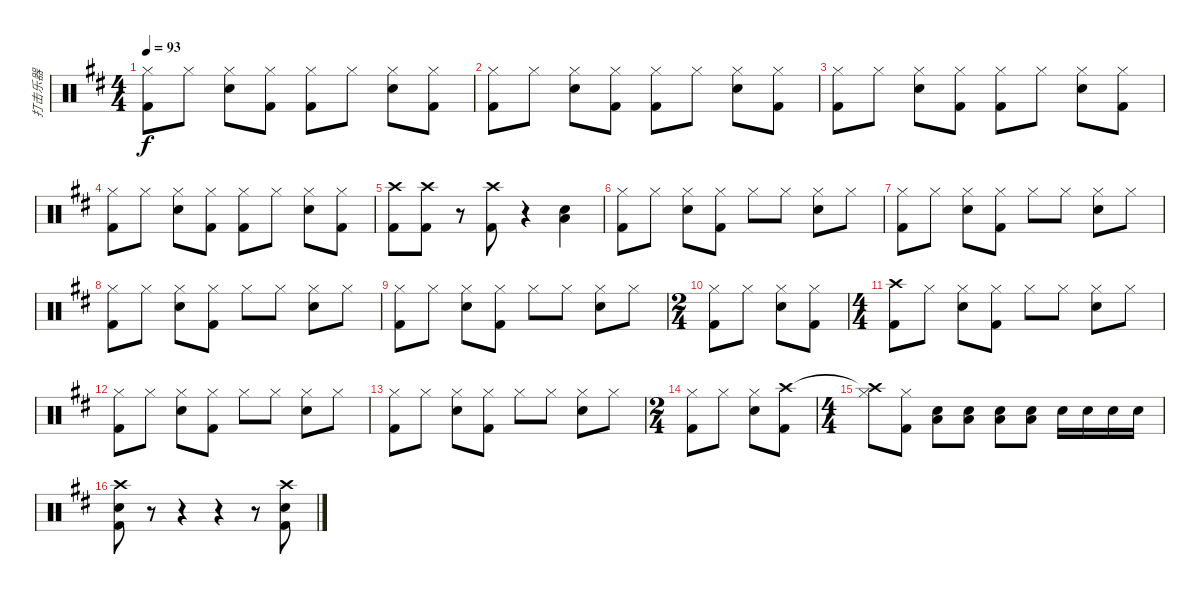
\track ("打击乐器" "打击乐器") {instrument percussion}
\staff {score}
\articulation defaults
\ts (4 4)
\tempo 93
\clef neutral
\ks d
("Hi-Hat (closed)" "Kick (hit) 2").8{dy f} "Hi-Hat (closed)".8 ("Hi-Hat (closed)" "Snare (hit) 2").8 ("Hi-Hat (closed)" "Kick (hit) 2").8 ("Hi-Hat (closed)" "Kick (hit) 2").8 "Hi-Hat (closed)".8 ("Hi-Hat (closed)" "Snare (hit) 2").8 ("Hi-Hat (closed)" "Kick (hit) 2").8 |
("Hi-Hat (closed)" "Kick (hit) 2").8 "Hi-Hat (closed)".8 ("Hi-Hat (closed)" "Snare (hit) 2").8 ("Hi-Hat (closed)" "Kick (hit) 2").8 ("Hi-Hat (closed)" "Kick (hit) 2").8 "Hi-Hat (closed)".8 ("Hi-Hat (closed)" "Snare (hit) 2").8 ("Hi-Hat (closed)" "Kick (hit) 2").8 |
("Hi-Hat (closed)" "Kick (hit) 2").8 "Hi-Hat (closed)".8 ("Hi-Hat (closed)" "Snare (hit) 2").8 ("Hi-Hat (closed)" "Kick (hit) 2").8 ("Hi-Hat (closed)" "Kick (hit) 2").8 "Hi-Hat (closed)".8 ("Hi-Hat (closed)" "Snare (hit) 2").8 ("Hi-Hat (closed)" "Kick (hit) 2").8 |
("Hi-Hat (closed)" "Kick (hit) 2").8 "Hi-Hat (closed)".8 ("Hi-Hat (closed)" "Snare (hit) 2").8 ("Hi-Hat (closed)" "Kick (hit) 2").8 ("Hi-Hat (closed)" "Kick (hit) 2").8 "Hi-Hat (closed)".8 ("Hi-Hat (closed)" "Snare (hit) 2").8 ("Hi-Hat (closed)" "Kick (hit) 2").8 |
("Crash high (hit)" "Kick (hit) 2").8 ("Crash high (hit)" "Kick (hit) 2").8 r.8 ("Crash high (hit)" "Kick (hit) 2").8 r.4 ("Low Tom (hit)" "Snare (hit) 2").4 |
("Hi-Hat (closed)" "Kick (hit) 2").8 "Hi-Hat (closed)".8 ("Hi-Hat (closed)" "Snare (hit) 2").8 ("Hi-Hat (closed)" "Kick (hit) 2").8 "Hi-Hat (closed)".8 "Hi-Hat (closed)".8 ("Hi-Hat (closed)" "Snare (hit) 2").8 "Hi-Hat (closed)".8 |
("Hi-Hat (closed)" "Kick (hit) 2").8 "Hi-Hat (closed)".8 ("Hi-Hat (closed)" "Snare (hit) 2").8 ("Hi-Hat (closed)" "Kick (hit) 2").8 "Hi-Hat (closed)".8 "Hi-Hat (closed)".8 ("Hi-Hat (closed)" "Snare (hit) 2").8 "Hi-Hat (closed)".8 |
("Hi-Hat (closed)" "Kick (hit) 2").8 "Hi-Hat (closed)".8 ("Hi-Hat (closed)" "Snare (hit) 2").8 ("Hi-Hat (closed)" "Kick (hit) 2").8 "Hi-Hat (closed)".8 "Hi-Hat (closed)".8 ("Hi-Hat (closed)" "Snare (hit) 2").8 "Hi-Hat (closed)".8 |
("Hi-Hat (closed)" "Kick (hit) 2").8 "Hi-Hat (closed)".8 ("Hi-Hat (closed)" "Snare (hit) 2").8 ("Hi-Hat (closed)" "Kick (hit) 2").8 "Hi-Hat (closed)".8 "Hi-Hat (closed)".8 ("Hi-Hat (closed)" "Snare (hit) 2").8 "Hi-Hat (closed)".8 |
\ts (2 4)
("Hi-Hat (closed)" "Kick (hit) 2").8 "Hi-Hat (closed)".8 ("Hi-Hat (closed)" "Snare (hit) 2").8 ("Hi-Hat (closed)" "Kick (hit) 2").8 |
\ts (4 4)
("Crash high (hit)" "Kick (hit) 2").8 "Hi-Hat (closed)".8 ("Hi-Hat (closed)" "Snare (hit) 2").8 ("Hi-Hat (closed)" "Kick (hit) 2").8 "Hi-Hat (closed)".8 "Hi-Hat (closed)".8 ("Hi-Hat (closed)" "Snare (hit) 2").8 "Hi-Hat (closed)".8 |
("Hi-Hat (closed)" "Kick (hit) 2").8 "Hi-Hat (closed)".8 ("Hi-Hat (closed)" "Snare (hit) 2").8 ("Hi-Hat (closed)" "Kick (hit) 2").8 "Hi-Hat (closed)".8 "Hi-Hat (closed)".8 ("Hi-Hat (closed)" "Snare (hit) 2").8 "Hi-Hat (closed)".8 |
("Hi-Hat (closed)" "Kick (hit) 2").8 "Hi-Hat (closed)".8 ("Hi-Hat (closed)" "Snare (hit) 2").8 ("Hi-Hat (closed)" "Kick (hit) 2").8 "Hi-Hat (closed)".8 "Hi-Hat (closed)".8 ("Hi-Hat (closed)" "Snare (hit) 2").8 "Hi-Hat (closed)".8 |
\ts (2 4)
("Hi-Hat (closed)" "Kick (hit) 2").8 "Hi-Hat (closed)".8 ("Hi-Hat (closed)" "Snare (hit) 2").8 ("Crash high (hit)" "Kick (hit) 2").8 |
\ts (4 4)
("Crash high (hit)"{t} "Hi-Hat (closed)").8 ("Hi-Hat (closed)" "Kick (hit) 2").8 ("Low Tom (hit)" "Snare (hit) 2").8 ("Low Tom (hit)" "Snare (hit) 2").8 ("Low Tom (hit)" "Snare (hit) 2").8 ("Low Tom (hit)" "Snare (hit) 2").8 "Snare (hit) 2".16 "Snare (hit) 2".16 "Snare (hit) 2".16 "Snare (hit) 2".16 |
("Crash high (hit)" "Snare (hit) 2" "Kick (hit) 2").8 r.8 r.4 r.4 r.8 ("Crash high (hit)" "Snare (hit) 2" "Kick (hit) 2").8
